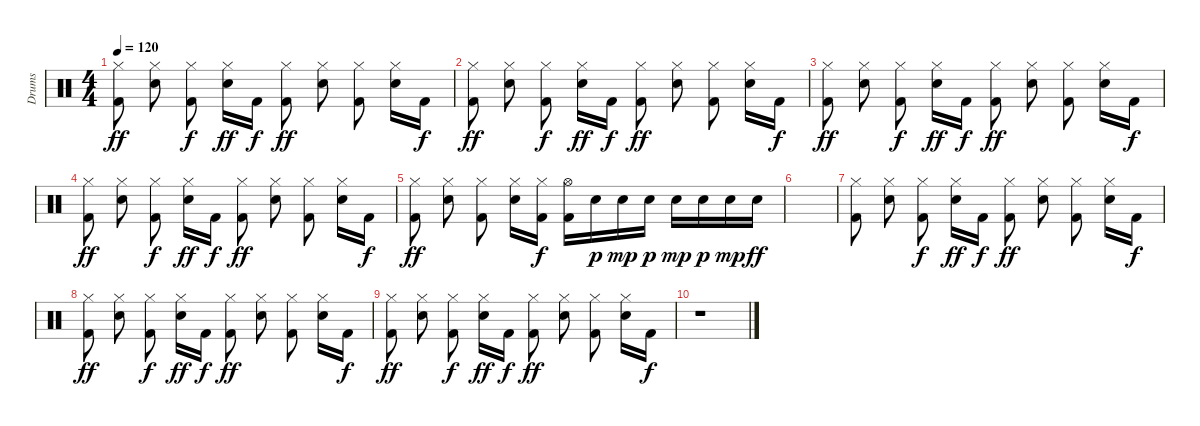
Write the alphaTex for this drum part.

\track ("Drums" "Drums") {instrument percussion}
\staff {score}
\articulation defaults
\ts (4 4)
\tempo 120
\clef neutral
\ks c
("Kick (hit) 2" "Hi-Hat (closed)").8{dy ff beam split} ("Snare (hit) 2" "Hi-Hat (closed)").8 ("Kick (hit) 2" "Hi-Hat (closed)").8{dy f beam split} ("Snare (hit) 2" "Hi-Hat (closed)").16{dy ff} "Kick (hit) 2".16{dy f} ("Kick (hit) 2" "Hi-Hat (closed)").8{dy ff beam split} ("Snare (hit) 2" "Hi-Hat (closed)").8 ("Kick (hit) 2" "Hi-Hat (closed)").8{beam split} ("Snare (hit) 2" "Hi-Hat (closed)").16 "Kick (hit) 2".16{dy f} |
("Kick (hit) 2" "Hi-Hat (closed)").8{dy ff beam split} ("Snare (hit) 2" "Hi-Hat (closed)").8 ("Kick (hit) 2" "Hi-Hat (closed)").8{dy f beam split} ("Snare (hit) 2" "Hi-Hat (closed)").16{dy ff} "Kick (hit) 2".16{dy f} ("Kick (hit) 2" "Hi-Hat (closed)").8{dy ff beam split} ("Snare (hit) 2" "Hi-Hat (closed)").8 ("Kick (hit) 2" "Hi-Hat (closed)").8{beam split} ("Snare (hit) 2" "Hi-Hat (closed)").16 "Kick (hit) 2".16{dy f} |
("Kick (hit) 2" "Hi-Hat (closed)").8{dy ff beam split} ("Snare (hit) 2" "Hi-Hat (closed)").8 ("Kick (hit) 2" "Hi-Hat (closed)").8{dy f beam split} ("Snare (hit) 2" "Hi-Hat (closed)").16{dy ff} "Kick (hit) 2".16{dy f} ("Kick (hit) 2" "Hi-Hat (closed)").8{dy ff beam split} ("Snare (hit) 2" "Hi-Hat (closed)").8 ("Kick (hit) 2" "Hi-Hat (closed)").8{beam split} ("Snare (hit) 2" "Hi-Hat (closed)").16 "Kick (hit) 2".16{dy f} |
("Kick (hit) 2" "Hi-Hat (closed)").8{dy ff beam split} ("Snare (hit) 2" "Hi-Hat (closed)").8 ("Kick (hit) 2" "Hi-Hat (closed)").8{dy f beam split} ("Snare (hit) 2" "Hi-Hat (closed)").16{dy ff} "Kick (hit) 2".16{dy f} ("Kick (hit) 2" "Hi-Hat (closed)").8{dy ff beam split} ("Snare (hit) 2" "Hi-Hat (closed)").8 ("Kick (hit) 2" "Hi-Hat (closed)").8{beam split} ("Snare (hit) 2" "Hi-Hat (closed)").16 "Kick (hit) 2".16{dy f} |
("Kick (hit) 2" "Hi-Hat (closed)").8{dy ff beam split} ("Snare (hit) 2" "Hi-Hat (closed)").8 ("Kick (hit) 2" "Hi-Hat (closed)").8{beam split} ("Snare (hit) 2" "Hi-Hat (closed)").16{beam merge} ("Kick (hit) 2" "Hi-Hat (closed)").16{dy f} ("Kick (hit) 2" "Hi-Hat (open)").16{beam merge} "Snare (hit) 2".16{dy p beam merge} "Snare (hit) 2".16{dy mp beam merge} "Snare (hit) 2".16{dy p beam split} "Snare (hit) 2".16{dy mp beam merge} "Snare (hit) 2".16{dy p beam merge} "Snare (hit) 2".16{dy mp} "Snare (hit) 2".16{dy ff} |
|
("Kick (hit) 2" "Hi-Hat (closed)").8{beam split} ("Snare (hit) 2" "Hi-Hat (closed)").8 ("Kick (hit) 2" "Hi-Hat (closed)").8{dy f beam split} ("Snare (hit) 2" "Hi-Hat (closed)").16{dy ff} "Kick (hit) 2".16{dy f} ("Kick (hit) 2" "Hi-Hat (closed)").8{dy ff beam split} ("Snare (hit) 2" "Hi-Hat (closed)").8 ("Kick (hit) 2" "Hi-Hat (closed)").8{beam split} ("Snare (hit) 2" "Hi-Hat (closed)").16 "Kick (hit) 2".16{dy f} |
("Kick (hit) 2" "Hi-Hat (closed)").8{dy ff beam split} ("Snare (hit) 2" "Hi-Hat (closed)").8 ("Kick (hit) 2" "Hi-Hat (closed)").8{dy f beam split} ("Snare (hit) 2" "Hi-Hat (closed)").16{dy ff} "Kick (hit) 2".16{dy f} ("Kick (hit) 2" "Hi-Hat (closed)").8{dy ff beam split} ("Snare (hit) 2" "Hi-Hat (closed)").8 ("Kick (hit) 2" "Hi-Hat (closed)").8{beam split} ("Snare (hit) 2" "Hi-Hat (closed)").16 "Kick (hit) 2".16{dy f} |
("Kick (hit) 2" "Hi-Hat (closed)").8{dy ff beam split} ("Snare (hit) 2" "Hi-Hat (closed)").8 ("Kick (hit) 2" "Hi-Hat (closed)").8{dy f beam split} ("Snare (hit) 2" "Hi-Hat (closed)").16{dy ff} "Kick (hit) 2".16{dy f} ("Kick (hit) 2" "Hi-Hat (closed)").8{dy ff beam split} ("Snare (hit) 2" "Hi-Hat (closed)").8 ("Kick (hit) 2" "Hi-Hat (closed)").8{beam split} ("Snare (hit) 2" "Hi-Hat (closed)").16 "Kick (hit) 2".16{dy f} |
r.1
